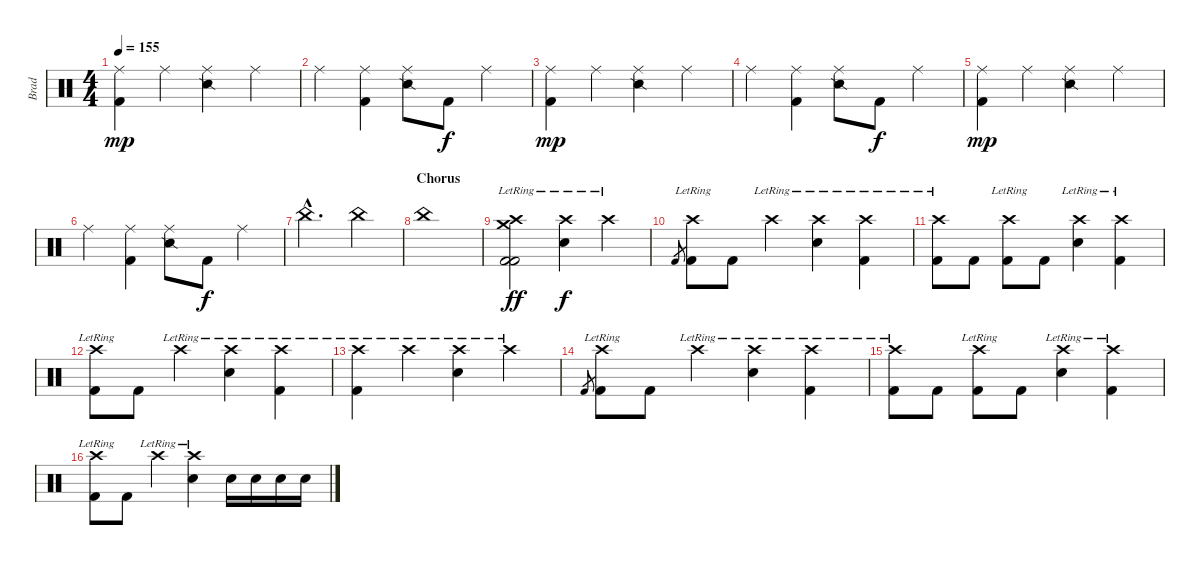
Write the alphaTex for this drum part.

\track ("Brad" "Brad") {instrument percussion}
\staff {score}
\articulation defaults
\ts (4 4)
\tempo 155
\clef neutral
\ks c
("Ride (middle)" "Kick (hit) 2").4{dy mp} "Ride (middle)".4 ("Ride (middle)" "Snare (side stick) 2").4 "Ride (middle)".4 |
"Ride (middle)".4 ("Ride (middle)" "Kick (hit) 2").4 ("Ride (middle)" "Snare (side stick) 2").8 "Kick (hit) 2".8{dy f} "Ride (middle)".4 |
("Ride (middle)" "Kick (hit) 2").4{dy mp} "Ride (middle)".4 ("Ride (middle)" "Snare (side stick) 2").4 "Ride (middle)".4 |
"Ride (middle)".4 ("Ride (middle)" "Kick (hit) 2").4 ("Ride (middle)" "Snare (side stick) 2").8 "Kick (hit) 2".8{dy f} "Ride (middle)".4 |
("Ride (middle)" "Kick (hit) 2").4{dy mp} "Ride (middle)".4 ("Ride (middle)" "Snare (side stick) 2").4 "Ride (middle)".4 |
"Ride (middle)".4 ("Ride (middle)" "Kick (hit) 2").4 ("Ride (middle)" "Snare (side stick) 2").8 "Kick (hit) 2".8{dy f} "Ride (middle)".4 |
"China (hit)"{hac}.2{d} "China (hit)".4 |
\section ("" "Chorus")
"China (hit)".1 |
("Crash high (hit)"{lr} "Crash medium (hit)"{lr} "Kick (hit) 2" "Kick (hit) 2").2{dy ff} ("Crash high (hit)"{lr} "Electric Snare (hit)").4{dy f} "Crash high (hit)"{lr}.4 |
"Kick (hit) 2".8{gr} ("Crash high (hit)"{lr} "Kick (hit) 2").8 "Kick (hit) 2".8 "Crash high (hit)"{lr}.4 ("Crash high (hit)"{lr} "Electric Snare (hit)").4 ("Crash high (hit)"{lr} "Kick (hit) 2").4 |
("Crash high (hit)"{lr} "Kick (hit) 2").8 "Kick (hit) 2".8 ("Crash high (hit)"{lr} "Kick (hit) 2").8 "Kick (hit) 2".8 ("Crash high (hit)"{lr} "Electric Snare (hit)").4 ("Crash high (hit)"{lr} "Kick (hit) 2").4 |
("Crash high (hit)"{lr} "Kick (hit) 2").8 "Kick (hit) 2".8 "Crash high (hit)"{lr}.4 ("Crash high (hit)"{lr} "Electric Snare (hit)").4 ("Crash high (hit)"{lr} "Kick (hit) 2").4 |
("Crash high (hit)"{lr} "Kick (hit) 2").4 "Crash high (hit)"{lr}.4 ("Crash high (hit)"{lr} "Electric Snare (hit)").4 "Crash high (hit)"{lr}.4 |
"Kick (hit) 2".8{gr} ("Crash high (hit)"{lr} "Kick (hit) 2").8 "Kick (hit) 2".8 "Crash high (hit)"{lr}.4 ("Crash high (hit)"{lr} "Electric Snare (hit)").4 ("Crash high (hit)"{lr} "Kick (hit) 2").4 |
("Crash high (hit)"{lr} "Kick (hit) 2").8 "Kick (hit) 2".8 ("Crash high (hit)"{lr} "Kick (hit) 2").8 "Kick (hit) 2".8 ("Crash high (hit)"{lr} "Electric Snare (hit)").4 ("Crash high (hit)"{lr} "Kick (hit) 2").4 |
("Crash high (hit)"{lr} "Kick (hit) 2").8 "Kick (hit) 2".8 "Crash high (hit)"{lr}.4 ("Crash high (hit)"{lr} "Snare (hit) 2").4 "Snare (hit) 2".16 "Snare (hit) 2".16 "Snare (hit) 2".16 "Snare (hit) 2".16
